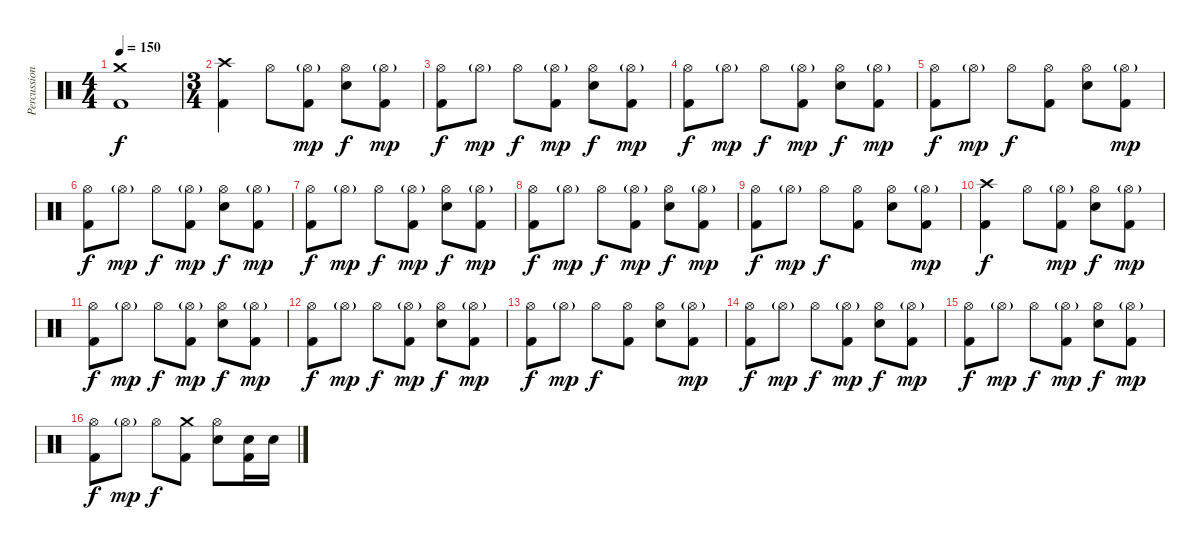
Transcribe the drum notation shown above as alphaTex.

\track ("Percussion" "Percussion") {instrument percussion}
\staff {score}
\articulation defaults
\ts (4 4)
\tempo 150
\clef neutral
\ks c
("Crash medium (hit)" "Kick (hit) 2").1{dy f} |
\ts (3 4)
("Crash high (hit)" "Kick (hit) 2").4 "Hi-Hat (open)".8 ("Hi-Hat (open)"{g} "Kick (hit) 2").8{dy mp} ("Hi-Hat (open)" "Electric Snare (hit)").8{dy f} ("Hi-Hat (open)"{g} "Kick (hit) 2").8{dy mp} |
("Hi-Hat (open)" "Kick (hit) 2").8{dy f} "Hi-Hat (open)"{g}.8{dy mp} "Hi-Hat (open)".8{dy f} ("Hi-Hat (open)"{g} "Kick (hit) 2").8{dy mp} ("Hi-Hat (open)" "Electric Snare (hit)").8{dy f} ("Hi-Hat (open)"{g} "Kick (hit) 2").8{dy mp} |
("Hi-Hat (open)" "Kick (hit) 2").8{dy f} "Hi-Hat (open)"{g}.8{dy mp} "Hi-Hat (open)".8{dy f} ("Hi-Hat (open)"{g} "Kick (hit) 2").8{dy mp} ("Hi-Hat (open)" "Electric Snare (hit)").8{dy f} ("Hi-Hat (open)"{g} "Kick (hit) 2").8{dy mp} |
("Hi-Hat (open)" "Kick (hit) 2").8{dy f} "Hi-Hat (open)"{g}.8{dy mp} "Hi-Hat (open)".8{dy f} ("Hi-Hat (open)" "Kick (hit) 2").8 ("Hi-Hat (open)" "Electric Snare (hit)").8 ("Hi-Hat (open)"{g} "Kick (hit) 2").8{dy mp} |
("Hi-Hat (open)" "Kick (hit) 2").8{dy f} "Hi-Hat (open)"{g}.8{dy mp} "Hi-Hat (open)".8{dy f} ("Hi-Hat (open)"{g} "Kick (hit) 2").8{dy mp} ("Hi-Hat (open)" "Electric Snare (hit)").8{dy f} ("Hi-Hat (open)"{g} "Kick (hit) 2").8{dy mp} |
("Hi-Hat (open)" "Kick (hit) 2").8{dy f} "Hi-Hat (open)"{g}.8{dy mp} "Hi-Hat (open)".8{dy f} ("Hi-Hat (open)"{g} "Kick (hit) 2").8{dy mp} ("Hi-Hat (open)" "Electric Snare (hit)").8{dy f} ("Hi-Hat (open)"{g} "Kick (hit) 2").8{dy mp} |
("Hi-Hat (open)" "Kick (hit) 2").8{dy f} "Hi-Hat (open)"{g}.8{dy mp} "Hi-Hat (open)".8{dy f} ("Hi-Hat (open)"{g} "Kick (hit) 2").8{dy mp} ("Hi-Hat (open)" "Electric Snare (hit)").8{dy f} ("Hi-Hat (open)"{g} "Kick (hit) 2").8{dy mp} |
("Hi-Hat (open)" "Kick (hit) 2").8{dy f} "Hi-Hat (open)"{g}.8{dy mp} "Hi-Hat (open)".8{dy f} ("Hi-Hat (open)" "Kick (hit) 2").8 ("Hi-Hat (open)" "Electric Snare (hit)").8 ("Hi-Hat (open)"{g} "Kick (hit) 2").8{dy mp} |
("Crash high (hit)" "Kick (hit) 2").4{dy f} "Hi-Hat (open)".8 ("Hi-Hat (open)"{g} "Kick (hit) 2").8{dy mp} ("Hi-Hat (open)" "Electric Snare (hit)").8{dy f} ("Hi-Hat (open)"{g} "Kick (hit) 2").8{dy mp} |
("Hi-Hat (open)" "Kick (hit) 2").8{dy f} "Hi-Hat (open)"{g}.8{dy mp} "Hi-Hat (open)".8{dy f} ("Hi-Hat (open)"{g} "Kick (hit) 2").8{dy mp} ("Hi-Hat (open)" "Electric Snare (hit)").8{dy f} ("Hi-Hat (open)"{g} "Kick (hit) 2").8{dy mp} |
("Hi-Hat (open)" "Kick (hit) 2").8{dy f} "Hi-Hat (open)"{g}.8{dy mp} "Hi-Hat (open)".8{dy f} ("Hi-Hat (open)"{g} "Kick (hit) 2").8{dy mp} ("Hi-Hat (open)" "Electric Snare (hit)").8{dy f} ("Hi-Hat (open)"{g} "Kick (hit) 2").8{dy mp} |
("Hi-Hat (open)" "Kick (hit) 2").8{dy f} "Hi-Hat (open)"{g}.8{dy mp} "Hi-Hat (open)".8{dy f} ("Hi-Hat (open)" "Kick (hit) 2").8 ("Hi-Hat (open)" "Electric Snare (hit)").8 ("Hi-Hat (open)"{g} "Kick (hit) 2").8{dy mp} |
("Hi-Hat (open)" "Kick (hit) 2").8{dy f} "Hi-Hat (open)"{g}.8{dy mp} "Hi-Hat (open)".8{dy f} ("Hi-Hat (open)"{g} "Kick (hit) 2").8{dy mp} ("Hi-Hat (open)" "Electric Snare (hit)").8{dy f} ("Hi-Hat (open)"{g} "Kick (hit) 2").8{dy mp} |
("Hi-Hat (open)" "Kick (hit) 2").8{dy f} "Hi-Hat (open)"{g}.8{dy mp} "Hi-Hat (open)".8{dy f} ("Hi-Hat (open)"{g} "Kick (hit) 2").8{dy mp} ("Hi-Hat (open)" "Electric Snare (hit)").8{dy f} ("Hi-Hat (open)"{g} "Kick (hit) 2").8{dy mp} |
("Hi-Hat (open)" "Kick (hit) 2").8{dy f} "Hi-Hat (open)"{g}.8{dy mp} "Hi-Hat (open)".8{dy f} ("Crash medium (hit)" "Kick (hit) 2").8 ("Hi-Hat (open)" "Electric Snare (hit)").8 ("Electric Snare (hit)" "Kick (hit) 2").16 "Electric Snare (hit)".16
